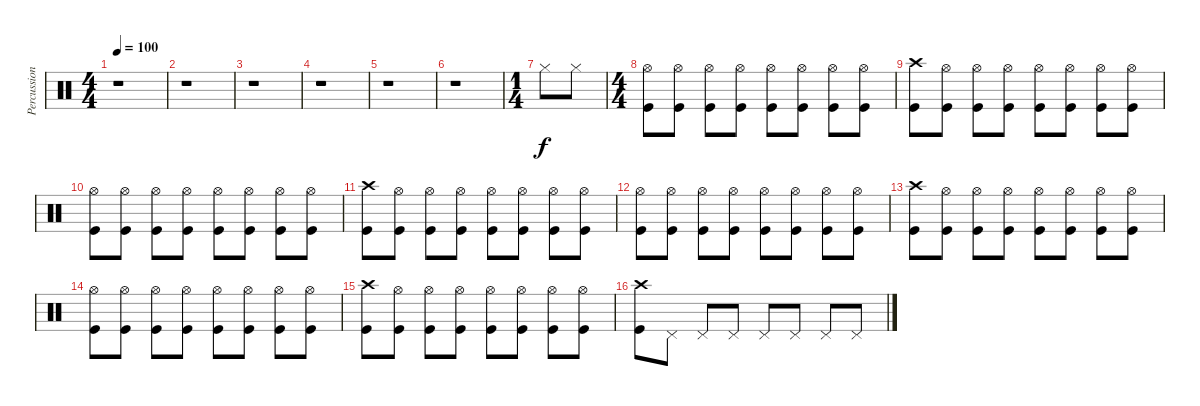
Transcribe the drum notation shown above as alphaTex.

\track ("Percussions" "Percussion") {instrument percussion}
\staff {score}
\articulation defaults
\ts (4 4)
\tempo 100
\clef neutral
\ks c
r.1{dy f} |
r.1 |
r.1 |
r.1 |
r.1 |
r.1 |
\ts (1 4)
"Hi-Hat (closed)".8 "Hi-Hat (closed)".8 |
\ts (4 4)
("Hi-Hat (open)" "Kick (hit)").8 ("Hi-Hat (open)" "Kick (hit)").8 ("Hi-Hat (open)" "Kick (hit)").8 ("Hi-Hat (open)" "Kick (hit)").8 ("Hi-Hat (open)" "Kick (hit)").8 ("Hi-Hat (open)" "Kick (hit)").8 ("Hi-Hat (open)" "Kick (hit)").8 ("Hi-Hat (open)" "Kick (hit)").8 |
("Crash high (hit)" "Kick (hit)").8 ("Hi-Hat (open)" "Kick (hit)").8 ("Hi-Hat (open)" "Kick (hit)").8 ("Hi-Hat (open)" "Kick (hit)").8 ("Hi-Hat (open)" "Kick (hit)").8 ("Hi-Hat (open)" "Kick (hit)").8 ("Hi-Hat (open)" "Kick (hit)").8 ("Hi-Hat (open)" "Kick (hit)").8 |
("Hi-Hat (open)" "Kick (hit)").8 ("Hi-Hat (open)" "Kick (hit)").8 ("Hi-Hat (open)" "Kick (hit)").8 ("Hi-Hat (open)" "Kick (hit)").8 ("Hi-Hat (open)" "Kick (hit)").8 ("Hi-Hat (open)" "Kick (hit)").8 ("Hi-Hat (open)" "Kick (hit)").8 ("Hi-Hat (open)" "Kick (hit)").8 |
("Crash high (hit)" "Kick (hit)").8 ("Hi-Hat (open)" "Kick (hit)").8 ("Hi-Hat (open)" "Kick (hit)").8 ("Hi-Hat (open)" "Kick (hit)").8 ("Hi-Hat (open)" "Kick (hit)").8 ("Hi-Hat (open)" "Kick (hit)").8 ("Hi-Hat (open)" "Kick (hit)").8 ("Hi-Hat (open)" "Kick (hit)").8 |
("Hi-Hat (open)" "Kick (hit)").8 ("Hi-Hat (open)" "Kick (hit)").8 ("Hi-Hat (open)" "Kick (hit)").8 ("Hi-Hat (open)" "Kick (hit)").8 ("Hi-Hat (open)" "Kick (hit)").8 ("Hi-Hat (open)" "Kick (hit)").8 ("Hi-Hat (open)" "Kick (hit)").8 ("Hi-Hat (open)" "Kick (hit)").8 |
("Crash high (hit)" "Kick (hit)").8 ("Hi-Hat (open)" "Kick (hit)").8 ("Hi-Hat (open)" "Kick (hit)").8 ("Hi-Hat (open)" "Kick (hit)").8 ("Hi-Hat (open)" "Kick (hit)").8 ("Hi-Hat (open)" "Kick (hit)").8 ("Hi-Hat (open)" "Kick (hit)").8 ("Hi-Hat (open)" "Kick (hit)").8 |
("Hi-Hat (open)" "Kick (hit)").8 ("Hi-Hat (open)" "Kick (hit)").8 ("Hi-Hat (open)" "Kick (hit)").8 ("Hi-Hat (open)" "Kick (hit)").8 ("Hi-Hat (open)" "Kick (hit)").8 ("Hi-Hat (open)" "Kick (hit)").8 ("Hi-Hat (open)" "Kick (hit)").8 ("Hi-Hat (open)" "Kick (hit)").8 |
("Crash high (hit)" "Kick (hit)").8 ("Hi-Hat (open)" "Kick (hit)").8 ("Hi-Hat (open)" "Kick (hit)").8 ("Hi-Hat (open)" "Kick (hit)").8 ("Hi-Hat (open)" "Kick (hit)").8 ("Hi-Hat (open)" "Kick (hit)").8 ("Hi-Hat (open)" "Kick (hit)").8 ("Hi-Hat (open)" "Kick (hit)").8 |
("Crash high (hit)" "Kick (hit)").8 "Pedal Hi-Hat (hit)".8 "Pedal Hi-Hat (hit)".8 "Pedal Hi-Hat (hit)".8 "Pedal Hi-Hat (hit)".8 "Pedal Hi-Hat (hit)".8 "Pedal Hi-Hat (hit)".8 "Pedal Hi-Hat (hit)".8
